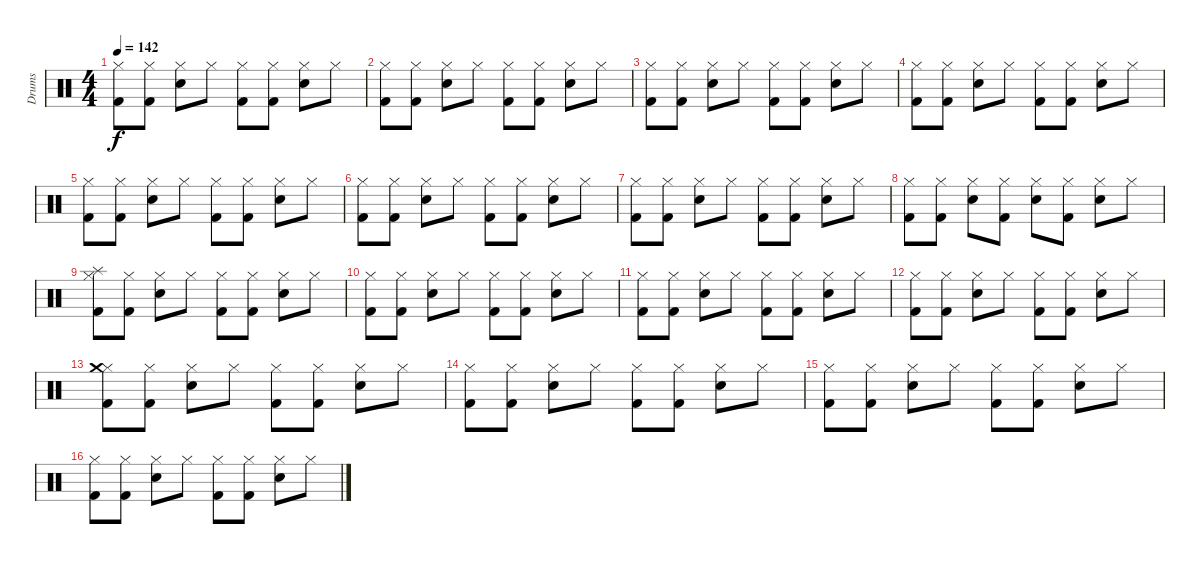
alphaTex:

\track ("Drums" "Drums") {instrument percussion}
\staff {score}
\articulation defaults
\ts (4 4)
\tempo 142
\clef neutral
\ks c
("Hi-Hat (closed)" "Kick (hit) 2").8{dy f} ("Hi-Hat (closed)" "Kick (hit) 2").8 ("Hi-Hat (closed)" "Electric Snare (hit)").8 "Hi-Hat (closed)".8 ("Hi-Hat (closed)" "Kick (hit) 2").8 ("Hi-Hat (closed)" "Kick (hit) 2").8 ("Hi-Hat (closed)" "Electric Snare (hit)").8 "Hi-Hat (closed)".8 |
("Hi-Hat (closed)" "Kick (hit) 2").8 ("Hi-Hat (closed)" "Kick (hit) 2").8 ("Hi-Hat (closed)" "Electric Snare (hit)").8 "Hi-Hat (closed)".8 ("Hi-Hat (closed)" "Kick (hit) 2").8 ("Hi-Hat (closed)" "Kick (hit) 2").8 ("Hi-Hat (closed)" "Electric Snare (hit)").8 "Hi-Hat (closed)".8 |
("Hi-Hat (closed)" "Kick (hit) 2").8 ("Hi-Hat (closed)" "Kick (hit) 2").8 ("Hi-Hat (closed)" "Electric Snare (hit)").8 "Hi-Hat (closed)".8 ("Hi-Hat (closed)" "Kick (hit) 2").8 ("Hi-Hat (closed)" "Kick (hit) 2").8 ("Hi-Hat (closed)" "Electric Snare (hit)").8 "Hi-Hat (closed)".8 |
("Hi-Hat (closed)" "Kick (hit) 2").8 ("Hi-Hat (closed)" "Kick (hit) 2").8 ("Hi-Hat (closed)" "Electric Snare (hit)").8 "Hi-Hat (closed)".8 ("Hi-Hat (closed)" "Kick (hit) 2").8 ("Hi-Hat (closed)" "Kick (hit) 2").8 ("Hi-Hat (closed)" "Electric Snare (hit)").8 "Hi-Hat (closed)".8 |
("Hi-Hat (closed)" "Kick (hit) 2").8 ("Hi-Hat (closed)" "Kick (hit) 2").8 ("Hi-Hat (closed)" "Electric Snare (hit)").8 "Hi-Hat (closed)".8 ("Hi-Hat (closed)" "Kick (hit) 2").8 ("Hi-Hat (closed)" "Kick (hit) 2").8 ("Hi-Hat (closed)" "Electric Snare (hit)").8 "Hi-Hat (closed)".8 |
("Hi-Hat (closed)" "Kick (hit) 2").8 ("Hi-Hat (closed)" "Kick (hit) 2").8 ("Hi-Hat (closed)" "Electric Snare (hit)").8 "Hi-Hat (closed)".8 ("Hi-Hat (closed)" "Kick (hit) 2").8 ("Hi-Hat (closed)" "Kick (hit) 2").8 ("Hi-Hat (closed)" "Electric Snare (hit)").8 "Hi-Hat (closed)".8 |
("Hi-Hat (closed)" "Kick (hit) 2").8 ("Hi-Hat (closed)" "Kick (hit) 2").8 ("Hi-Hat (closed)" "Electric Snare (hit)").8 "Hi-Hat (closed)".8 ("Hi-Hat (closed)" "Kick (hit) 2").8 ("Hi-Hat (closed)" "Kick (hit) 2").8 ("Hi-Hat (closed)" "Electric Snare (hit)").8 "Hi-Hat (closed)".8 |
("Hi-Hat (closed)" "Kick (hit) 2").8 ("Hi-Hat (closed)" "Kick (hit) 2").8 ("Hi-Hat (closed)" "Electric Snare (hit)").8 ("Hi-Hat (closed)" "Kick (hit) 2").8 ("Hi-Hat (closed)" "Electric Snare (hit)").8 ("Hi-Hat (closed)" "Kick (hit) 2").8 ("Hi-Hat (closed)" "Electric Snare (hit)").8 "Hi-Hat (closed)".8 |
("Hi-Hat (closed)" "Splash (hit)" "Kick (hit) 2").8 ("Hi-Hat (closed)" "Kick (hit) 2").8 ("Hi-Hat (closed)" "Electric Snare (hit)").8 "Hi-Hat (closed)".8 ("Hi-Hat (closed)" "Kick (hit) 2").8 ("Hi-Hat (closed)" "Kick (hit) 2").8 ("Hi-Hat (closed)" "Electric Snare (hit)").8 "Hi-Hat (closed)".8 |
("Hi-Hat (closed)" "Kick (hit) 2").8 ("Hi-Hat (closed)" "Kick (hit) 2").8 ("Hi-Hat (closed)" "Electric Snare (hit)").8 "Hi-Hat (closed)".8 ("Hi-Hat (closed)" "Kick (hit) 2").8 ("Hi-Hat (closed)" "Kick (hit) 2").8 ("Hi-Hat (closed)" "Electric Snare (hit)").8 "Hi-Hat (closed)".8 |
("Hi-Hat (closed)" "Kick (hit) 2").8 ("Hi-Hat (closed)" "Kick (hit) 2").8 ("Hi-Hat (closed)" "Electric Snare (hit)").8 "Hi-Hat (closed)".8 ("Hi-Hat (closed)" "Kick (hit) 2").8 ("Hi-Hat (closed)" "Kick (hit) 2").8 ("Hi-Hat (closed)" "Electric Snare (hit)").8 "Hi-Hat (closed)".8 |
("Hi-Hat (closed)" "Kick (hit) 2").8 ("Hi-Hat (closed)" "Kick (hit) 2").8 ("Hi-Hat (closed)" "Electric Snare (hit)").8 "Hi-Hat (closed)".8 ("Hi-Hat (closed)" "Kick (hit) 2").8 ("Hi-Hat (closed)" "Kick (hit) 2").8 ("Hi-Hat (closed)" "Electric Snare (hit)").8 "Hi-Hat (closed)".8 |
("Hi-Hat (closed)" "Crash medium (hit)" "Kick (hit) 2").8 ("Hi-Hat (closed)" "Kick (hit) 2").8 ("Hi-Hat (closed)" "Electric Snare (hit)").8 "Hi-Hat (closed)".8 ("Hi-Hat (closed)" "Kick (hit) 2").8 ("Hi-Hat (closed)" "Kick (hit) 2").8 ("Hi-Hat (closed)" "Electric Snare (hit)").8 "Hi-Hat (closed)".8 |
("Hi-Hat (closed)" "Kick (hit) 2").8 ("Hi-Hat (closed)" "Kick (hit) 2").8 ("Hi-Hat (closed)" "Electric Snare (hit)").8 "Hi-Hat (closed)".8 ("Hi-Hat (closed)" "Kick (hit) 2").8 ("Hi-Hat (closed)" "Kick (hit) 2").8 ("Hi-Hat (closed)" "Electric Snare (hit)").8 "Hi-Hat (closed)".8 |
("Hi-Hat (closed)" "Kick (hit) 2").8 ("Hi-Hat (closed)" "Kick (hit) 2").8 ("Hi-Hat (closed)" "Electric Snare (hit)").8 "Hi-Hat (closed)".8 ("Hi-Hat (closed)" "Kick (hit) 2").8 ("Hi-Hat (closed)" "Kick (hit) 2").8 ("Hi-Hat (closed)" "Electric Snare (hit)").8 "Hi-Hat (closed)".8 |
("Hi-Hat (closed)" "Kick (hit) 2").8 ("Hi-Hat (closed)" "Kick (hit) 2").8 ("Hi-Hat (closed)" "Electric Snare (hit)").8 "Hi-Hat (closed)".8 ("Hi-Hat (closed)" "Kick (hit) 2").8 ("Hi-Hat (closed)" "Kick (hit) 2").8 ("Hi-Hat (closed)" "Electric Snare (hit)").8 "Hi-Hat (closed)".8
